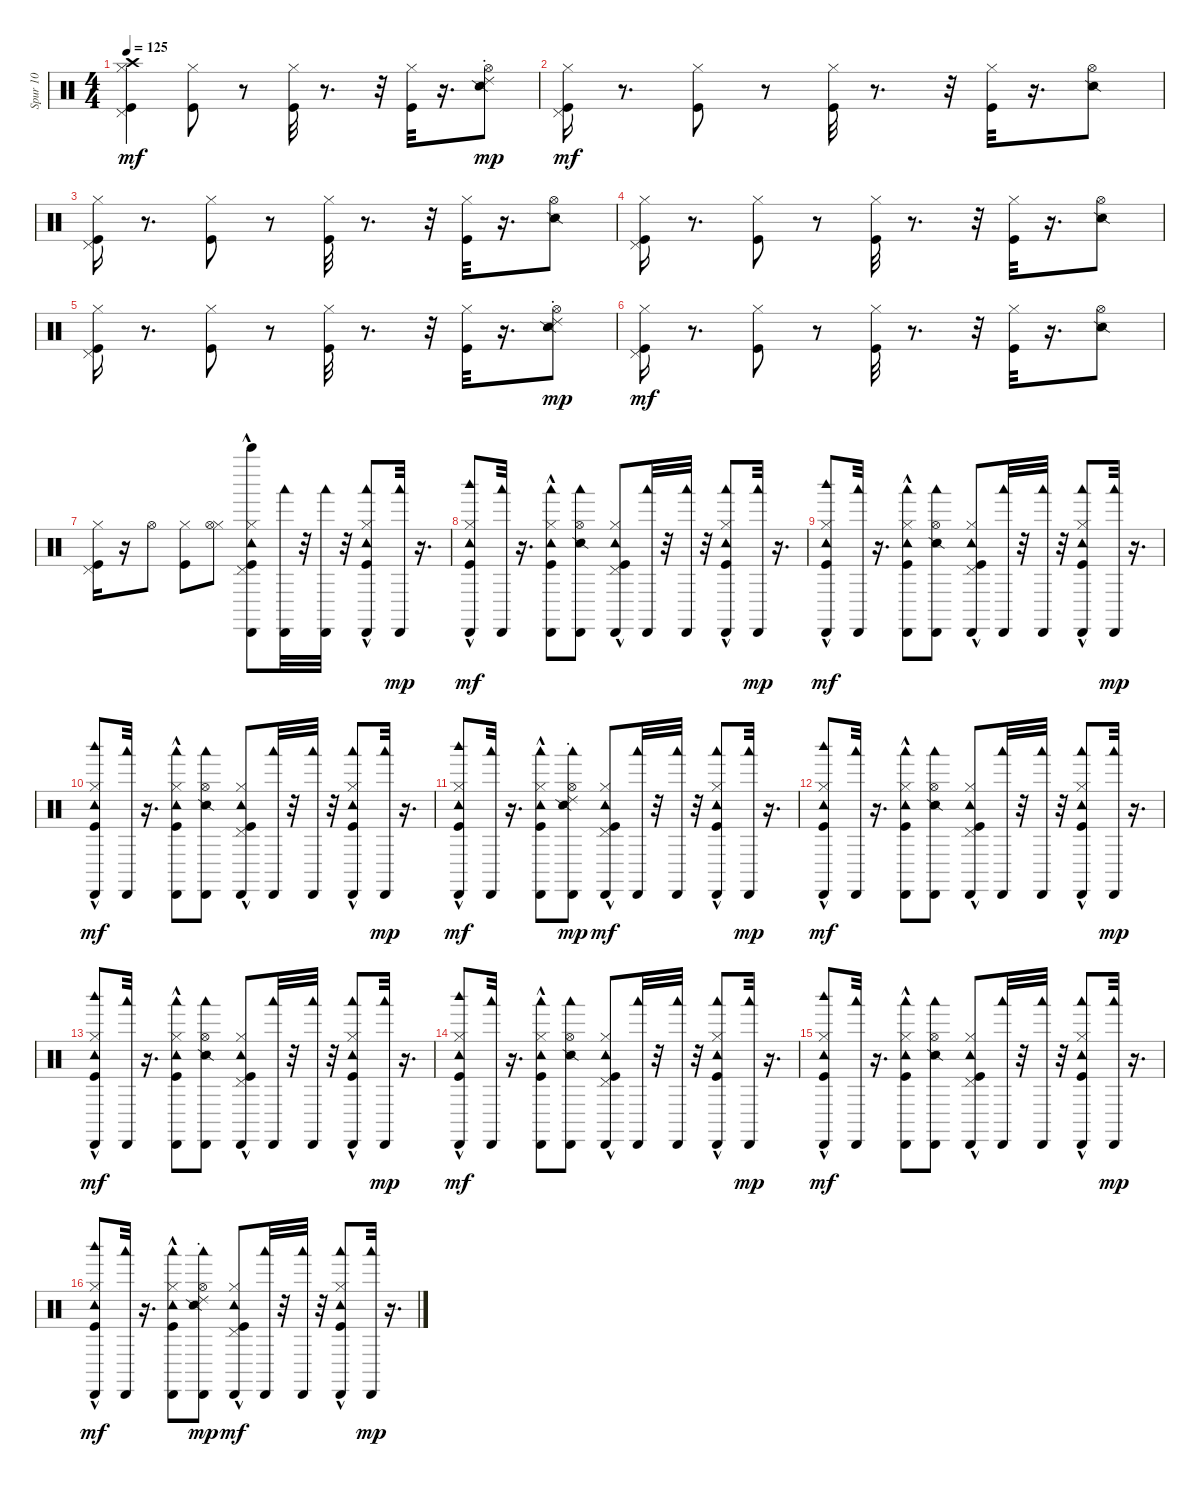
\track ("Spur 10" "Spur 10") {instrument percussion}
\staff {score}
\articulation defaults
\ts (4 4)
\tempo 125
\clef neutral
\ks c
("Pedal Hi-Hat (hit)" "Kick (hit)" "Hi-Hat (closed)" "Crash high (hit)").4{dy mf} ("Hi-Hat (closed)" "Kick (hit)").8 r.8 ("Hi-Hat (closed)" "Kick (hit)").32 r.8{d} r.32 ("Hi-Hat (closed)" "Kick (hit)").32 r.16{d} ("Hi-Hat (open)" "Snare (side stick) 2" "Ride (choke) 2").8{dy mp} |
("Pedal Hi-Hat (hit)" "Kick (hit)" "Hi-Hat (closed)").16{dy mf} r.8{d} ("Hi-Hat (closed)" "Kick (hit)").8 r.8 ("Hi-Hat (closed)" "Kick (hit)").32 r.8{d} r.32 ("Hi-Hat (closed)" "Kick (hit)").32 r.16{d} ("Hi-Hat (open)" "Snare (side stick) 2").8 |
("Pedal Hi-Hat (hit)" "Kick (hit)" "Hi-Hat (closed)").16 r.8{d} ("Hi-Hat (closed)" "Kick (hit)").8 r.8 ("Hi-Hat (closed)" "Kick (hit)").32 r.8{d} r.32 ("Hi-Hat (closed)" "Kick (hit)").32 r.16{d} ("Hi-Hat (open)" "Snare (side stick) 2").8 |
("Pedal Hi-Hat (hit)" "Kick (hit)" "Hi-Hat (closed)").16 r.8{d} ("Hi-Hat (closed)" "Kick (hit)").8 r.8 ("Hi-Hat (closed)" "Kick (hit)").32 r.8{d} r.32 ("Hi-Hat (closed)" "Kick (hit)").32 r.16{d} ("Hi-Hat (open)" "Snare (side stick) 2").8 |
("Pedal Hi-Hat (hit)" "Kick (hit)" "Hi-Hat (closed)").16 r.8{d} ("Hi-Hat (closed)" "Kick (hit)").8 r.8 ("Hi-Hat (closed)" "Kick (hit)").32 r.8{d} r.32 ("Hi-Hat (closed)" "Kick (hit)").32 r.16{d} ("Hi-Hat (open)" "Snare (side stick) 2" "Ride (choke) 2").8{dy mp} |
("Pedal Hi-Hat (hit)" "Kick (hit)" "Hi-Hat (closed)").16{dy mf} r.8{d} ("Hi-Hat (closed)" "Kick (hit)").8 r.8 ("Hi-Hat (closed)" "Kick (hit)").32 r.8{d} r.32 ("Hi-Hat (closed)" "Kick (hit)").32 r.16{d} ("Hi-Hat (open)" "Snare (side stick) 2").8 |
("Pedal Hi-Hat (hit)" "Kick (hit)" "Hi-Hat (closed)").16 r.16 "Hi-Hat (open)".8 ("Hi-Hat (closed)" "Kick (hit)").8 ("Hi-Hat (closed)" "Hi-Hat (open)").8 ("Cabasa (hit)" "Tambourine (hit)"{hac} "Bell Tree (hit)"{hac} "Pedal Hi-Hat (hit)" "Kick (hit)" "Hi-Hat (closed)").8 ("Woodblock low (hit)" "Cabasa (hit)").32 r.32 ("Woodblock low (hit)" "Cabasa (hit)").32 r.32 ("Woodblock low (hit)" "Cabasa (hit)" "Tambourine (hit)"{hac} "Hi-Hat (closed)" "Kick (hit)").8 ("Woodblock low (hit)" "Cabasa (hit)").32{dy mp} r.16{d} |
("Woodblock high (hit)" "Cabasa (hit)" "Tambourine (hit)"{hac} "Hi-Hat (closed)" "Kick (hit)").8{dy mf} ("Woodblock low (hit)" "Cabasa (hit)").32 r.16{d} ("Woodblock low (hit)" "Cabasa (hit)" "Tambourine (hit)"{hac} "Hi-Hat (closed)" "Kick (hit)").8 ("Woodblock low (hit)" "Cabasa (hit)" "Hi-Hat (open)" "Snare (side stick) 2").8 ("Cabasa (hit)" "Tambourine (hit)"{hac} "Pedal Hi-Hat (hit)" "Kick (hit)" "Hi-Hat (closed)").8 ("Woodblock low (hit)" "Cabasa (hit)").32 r.32 ("Woodblock low (hit)" "Cabasa (hit)").32 r.32 ("Woodblock low (hit)" "Cabasa (hit)" "Tambourine (hit)"{hac} "Hi-Hat (closed)" "Kick (hit)").8 ("Woodblock low (hit)" "Cabasa (hit)").32{dy mp} r.16{d} |
("Woodblock high (hit)" "Cabasa (hit)" "Tambourine (hit)"{hac} "Hi-Hat (closed)" "Kick (hit)").8{dy mf} ("Woodblock low (hit)" "Cabasa (hit)").32 r.16{d} ("Woodblock low (hit)" "Cabasa (hit)" "Tambourine (hit)"{hac} "Hi-Hat (closed)" "Kick (hit)").8 ("Woodblock low (hit)" "Cabasa (hit)" "Hi-Hat (open)" "Snare (side stick) 2").8 ("Cabasa (hit)" "Tambourine (hit)"{hac} "Pedal Hi-Hat (hit)" "Kick (hit)" "Hi-Hat (closed)").8 ("Woodblock low (hit)" "Cabasa (hit)").32 r.32 ("Woodblock low (hit)" "Cabasa (hit)").32 r.32 ("Woodblock low (hit)" "Cabasa (hit)" "Tambourine (hit)"{hac} "Hi-Hat (closed)" "Kick (hit)").8 ("Woodblock low (hit)" "Cabasa (hit)").32{dy mp} r.16{d} |
("Woodblock high (hit)" "Cabasa (hit)" "Tambourine (hit)"{hac} "Hi-Hat (closed)" "Kick (hit)").8{dy mf} ("Woodblock low (hit)" "Cabasa (hit)").32 r.16{d} ("Woodblock low (hit)" "Cabasa (hit)" "Tambourine (hit)"{hac} "Hi-Hat (closed)" "Kick (hit)").8 ("Woodblock low (hit)" "Cabasa (hit)" "Hi-Hat (open)" "Snare (side stick) 2").8 ("Cabasa (hit)" "Tambourine (hit)"{hac} "Pedal Hi-Hat (hit)" "Kick (hit)" "Hi-Hat (closed)").8 ("Woodblock low (hit)" "Cabasa (hit)").32 r.32 ("Woodblock low (hit)" "Cabasa (hit)").32 r.32 ("Woodblock low (hit)" "Cabasa (hit)" "Tambourine (hit)"{hac} "Hi-Hat (closed)" "Kick (hit)").8 ("Woodblock low (hit)" "Cabasa (hit)").32{dy mp} r.16{d} |
("Woodblock high (hit)" "Cabasa (hit)" "Tambourine (hit)"{hac} "Hi-Hat (closed)" "Kick (hit)").8{dy mf} ("Woodblock low (hit)" "Cabasa (hit)").32 r.16{d} ("Woodblock low (hit)" "Cabasa (hit)" "Tambourine (hit)"{hac} "Hi-Hat (closed)" "Kick (hit)").8 ("Woodblock low (hit)" "Cabasa (hit)" "Hi-Hat (open)" "Snare (side stick) 2" "Ride (choke) 2").8{dy mp} ("Cabasa (hit)" "Tambourine (hit)"{hac} "Pedal Hi-Hat (hit)" "Kick (hit)" "Hi-Hat (closed)").8{dy mf} ("Woodblock low (hit)" "Cabasa (hit)").32 r.32 ("Woodblock low (hit)" "Cabasa (hit)").32 r.32 ("Woodblock low (hit)" "Cabasa (hit)" "Tambourine (hit)"{hac} "Hi-Hat (closed)" "Kick (hit)").8 ("Woodblock low (hit)" "Cabasa (hit)").32{dy mp} r.16{d} |
("Woodblock high (hit)" "Cabasa (hit)" "Tambourine (hit)"{hac} "Hi-Hat (closed)" "Kick (hit)").8{dy mf} ("Woodblock low (hit)" "Cabasa (hit)").32 r.16{d} ("Woodblock low (hit)" "Cabasa (hit)" "Tambourine (hit)"{hac} "Hi-Hat (closed)" "Kick (hit)").8 ("Woodblock low (hit)" "Cabasa (hit)" "Hi-Hat (open)" "Snare (side stick) 2").8 ("Cabasa (hit)" "Tambourine (hit)"{hac} "Pedal Hi-Hat (hit)" "Kick (hit)" "Hi-Hat (closed)").8 ("Woodblock low (hit)" "Cabasa (hit)").32 r.32 ("Woodblock low (hit)" "Cabasa (hit)").32 r.32 ("Woodblock low (hit)" "Cabasa (hit)" "Tambourine (hit)"{hac} "Hi-Hat (closed)" "Kick (hit)").8 ("Woodblock low (hit)" "Cabasa (hit)").32{dy mp} r.16{d} |
("Woodblock high (hit)" "Cabasa (hit)" "Tambourine (hit)"{hac} "Hi-Hat (closed)" "Kick (hit)").8{dy mf} ("Woodblock low (hit)" "Cabasa (hit)").32 r.16{d} ("Woodblock low (hit)" "Cabasa (hit)" "Tambourine (hit)"{hac} "Hi-Hat (closed)" "Kick (hit)").8 ("Woodblock low (hit)" "Cabasa (hit)" "Hi-Hat (open)" "Snare (side stick) 2").8 ("Cabasa (hit)" "Tambourine (hit)"{hac} "Pedal Hi-Hat (hit)" "Kick (hit)" "Hi-Hat (closed)").8 ("Woodblock low (hit)" "Cabasa (hit)").32 r.32 ("Woodblock low (hit)" "Cabasa (hit)").32 r.32 ("Woodblock low (hit)" "Cabasa (hit)" "Tambourine (hit)"{hac} "Hi-Hat (closed)" "Kick (hit)").8 ("Woodblock low (hit)" "Cabasa (hit)").32{dy mp} r.16{d} |
("Woodblock high (hit)" "Cabasa (hit)" "Tambourine (hit)"{hac} "Hi-Hat (closed)" "Kick (hit)").8{dy mf} ("Woodblock low (hit)" "Cabasa (hit)").32 r.16{d} ("Woodblock low (hit)" "Cabasa (hit)" "Tambourine (hit)"{hac} "Hi-Hat (closed)" "Kick (hit)").8 ("Woodblock low (hit)" "Cabasa (hit)" "Hi-Hat (open)" "Snare (side stick) 2").8 ("Cabasa (hit)" "Tambourine (hit)"{hac} "Pedal Hi-Hat (hit)" "Kick (hit)" "Hi-Hat (closed)").8 ("Woodblock low (hit)" "Cabasa (hit)").32 r.32 ("Woodblock low (hit)" "Cabasa (hit)").32 r.32 ("Woodblock low (hit)" "Cabasa (hit)" "Tambourine (hit)"{hac} "Hi-Hat (closed)" "Kick (hit)").8 ("Woodblock low (hit)" "Cabasa (hit)").32{dy mp} r.16{d} |
("Woodblock high (hit)" "Cabasa (hit)" "Tambourine (hit)"{hac} "Hi-Hat (closed)" "Kick (hit)").8{dy mf} ("Woodblock low (hit)" "Cabasa (hit)").32 r.16{d} ("Woodblock low (hit)" "Cabasa (hit)" "Tambourine (hit)"{hac} "Hi-Hat (closed)" "Kick (hit)").8 ("Woodblock low (hit)" "Cabasa (hit)" "Hi-Hat (open)" "Snare (side stick) 2").8 ("Cabasa (hit)" "Tambourine (hit)"{hac} "Pedal Hi-Hat (hit)" "Kick (hit)" "Hi-Hat (closed)").8 ("Woodblock low (hit)" "Cabasa (hit)").32 r.32 ("Woodblock low (hit)" "Cabasa (hit)").32 r.32 ("Woodblock low (hit)" "Cabasa (hit)" "Tambourine (hit)"{hac} "Hi-Hat (closed)" "Kick (hit)").8 ("Woodblock low (hit)" "Cabasa (hit)").32{dy mp} r.16{d} |
("Woodblock high (hit)" "Cabasa (hit)" "Tambourine (hit)"{hac} "Hi-Hat (closed)" "Kick (hit)").8{dy mf} ("Woodblock low (hit)" "Cabasa (hit)").32 r.16{d} ("Woodblock low (hit)" "Cabasa (hit)" "Tambourine (hit)"{hac} "Hi-Hat (closed)" "Kick (hit)").8 ("Woodblock low (hit)" "Cabasa (hit)" "Hi-Hat (open)" "Snare (side stick) 2" "Ride (choke) 2").8{dy mp} ("Cabasa (hit)" "Tambourine (hit)"{hac} "Pedal Hi-Hat (hit)" "Kick (hit)" "Hi-Hat (closed)").8{dy mf} ("Woodblock low (hit)" "Cabasa (hit)").32 r.32 ("Woodblock low (hit)" "Cabasa (hit)").32 r.32 ("Woodblock low (hit)" "Cabasa (hit)" "Tambourine (hit)"{hac} "Hi-Hat (closed)" "Kick (hit)").8 ("Woodblock low (hit)" "Cabasa (hit)").32{dy mp} r.16{d}
